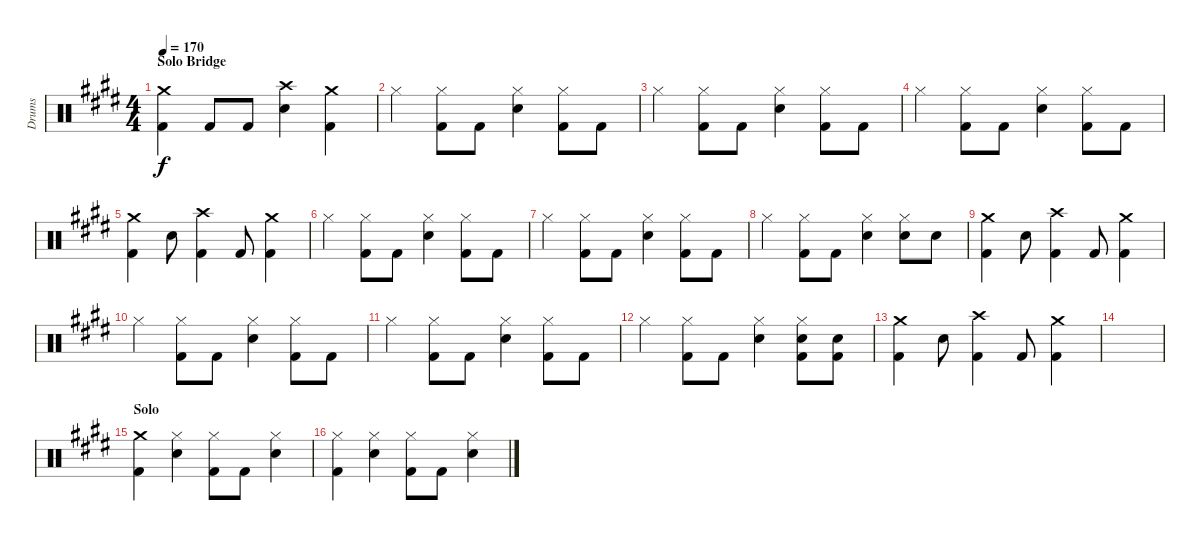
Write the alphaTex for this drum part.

\track ("Drums" "Drums") {instrument percussion}
\staff {score}
\articulation defaults
\ts (4 4)
\section ("" "Solo Bridge")
\tempo 170
\clef neutral
\ks c#minor
("Crash medium (hit)" "Kick (hit) 2").4{dy f} "Kick (hit) 2".8 "Kick (hit) 2".8 ("Crash high (hit)" "Electric Snare (hit)").4 ("Crash medium (hit)" "Kick (hit) 2").4 |
"Hi-Hat (closed)".4 ("Hi-Hat (closed)" "Kick (hit) 2").8 "Kick (hit) 2".8 ("Hi-Hat (closed)" "Electric Snare (hit)").4 ("Hi-Hat (closed)" "Kick (hit) 2").8 "Kick (hit) 2".8 |
"Hi-Hat (closed)".4 ("Hi-Hat (closed)" "Kick (hit) 2").8 "Kick (hit) 2".8 ("Hi-Hat (closed)" "Electric Snare (hit)").4 ("Hi-Hat (closed)" "Kick (hit) 2").8 "Kick (hit) 2".8 |
"Hi-Hat (closed)".4 ("Hi-Hat (closed)" "Kick (hit) 2").8 "Kick (hit) 2".8 ("Hi-Hat (closed)" "Electric Snare (hit)").4 ("Hi-Hat (closed)" "Kick (hit) 2").8 "Kick (hit) 2".8 |
("Crash medium (hit)" "Kick (hit) 2").4 "Electric Snare (hit)".8 ("Crash high (hit)" "Kick (hit) 2").4 "Kick (hit) 2".8 ("Crash medium (hit)" "Kick (hit) 2").4 |
"Hi-Hat (closed)".4 ("Hi-Hat (closed)" "Kick (hit) 2").8 "Kick (hit) 2".8 ("Hi-Hat (closed)" "Electric Snare (hit)").4 ("Hi-Hat (closed)" "Kick (hit) 2").8 "Kick (hit) 2".8 |
"Hi-Hat (closed)".4 ("Hi-Hat (closed)" "Kick (hit) 2").8 "Kick (hit) 2".8 ("Hi-Hat (closed)" "Electric Snare (hit)").4 ("Hi-Hat (closed)" "Kick (hit) 2").8 "Kick (hit) 2".8 |
"Hi-Hat (closed)".4 ("Hi-Hat (closed)" "Kick (hit) 2").8 "Kick (hit) 2".8 ("Hi-Hat (closed)" "Electric Snare (hit)").4 ("Hi-Hat (closed)" "Electric Snare (hit)").8 "Electric Snare (hit)".8 |
("Crash medium (hit)" "Kick (hit) 2").4 "Electric Snare (hit)".8 ("Crash high (hit)" "Kick (hit) 2").4 "Kick (hit) 2".8 ("Crash medium (hit)" "Kick (hit) 2").4 |
"Hi-Hat (closed)".4 ("Hi-Hat (closed)" "Kick (hit) 2").8 "Kick (hit) 2".8 ("Hi-Hat (closed)" "Electric Snare (hit)").4 ("Hi-Hat (closed)" "Kick (hit) 2").8 "Kick (hit) 2".8 |
"Hi-Hat (closed)".4 ("Hi-Hat (closed)" "Kick (hit) 2").8 "Kick (hit) 2".8 ("Hi-Hat (closed)" "Electric Snare (hit)").4 ("Hi-Hat (closed)" "Kick (hit) 2").8 "Kick (hit) 2".8 |
"Hi-Hat (closed)".4 ("Hi-Hat (closed)" "Kick (hit) 2").8 "Kick (hit) 2".8 ("Hi-Hat (closed)" "Electric Snare (hit)").4 ("Hi-Hat (closed)" "Electric Snare (hit)" "Kick (hit) 2").8 ("Electric Snare (hit)" "Kick (hit) 2").8 |
("Crash medium (hit)" "Kick (hit) 2").4 "Electric Snare (hit)".8 ("Crash high (hit)" "Kick (hit) 2").4 "Kick (hit) 2".8 ("Crash medium (hit)" "Kick (hit) 2").4 |
|
\section ("" "Solo")
("Crash medium (hit)" "Kick (hit) 2").4 ("Hi-Hat (closed)" "Electric Snare (hit)").4 ("Hi-Hat (closed)" "Kick (hit) 2").8 "Kick (hit) 2".8 ("Hi-Hat (closed)" "Electric Snare (hit)").4 |
("Hi-Hat (closed)" "Kick (hit) 2").4 ("Hi-Hat (closed)" "Electric Snare (hit)").4 ("Hi-Hat (closed)" "Kick (hit) 2").8 "Kick (hit) 2".8 ("Hi-Hat (closed)" "Electric Snare (hit)").4
